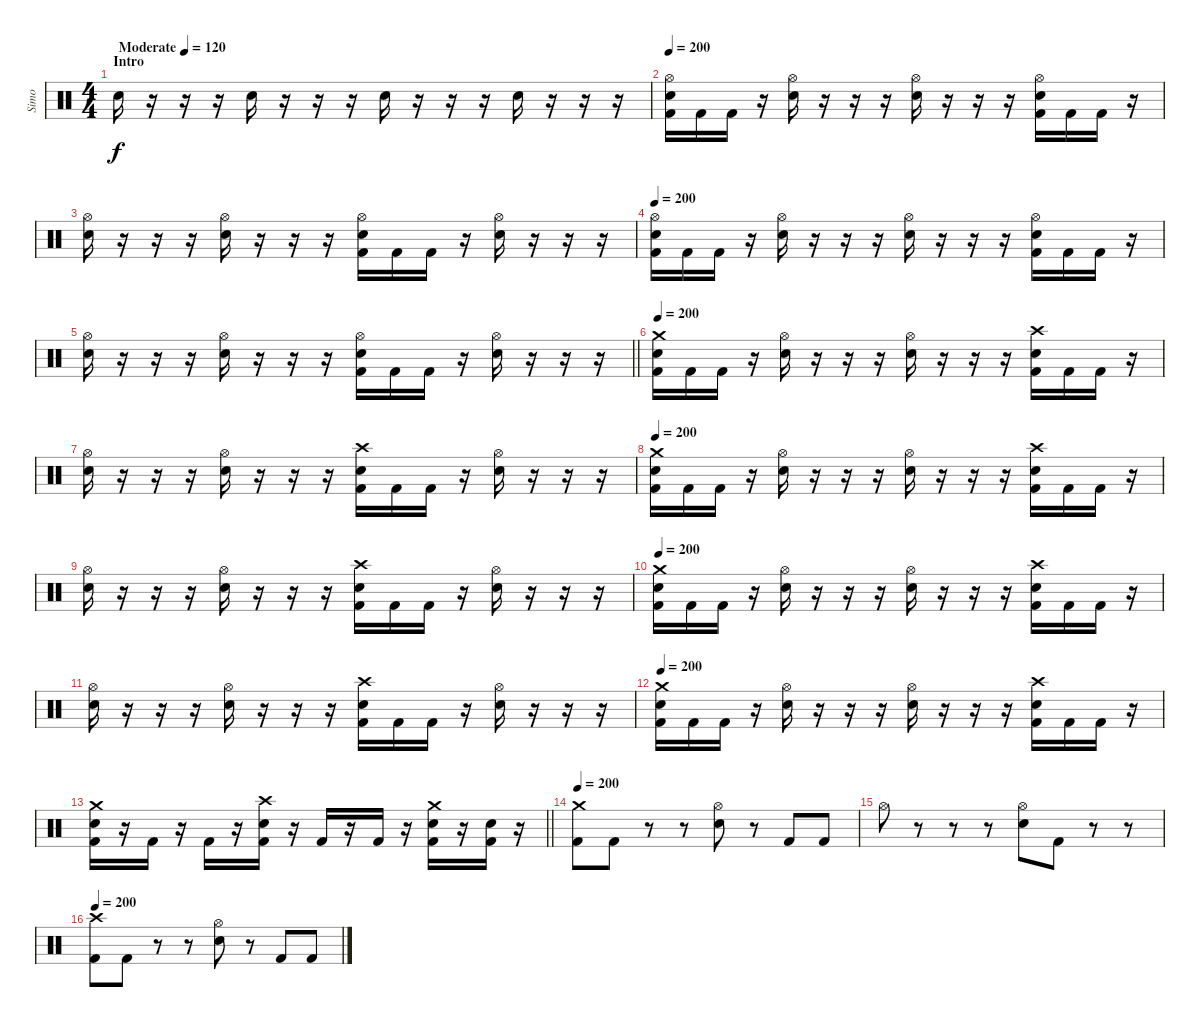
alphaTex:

\track ("Simo" "Simo") {instrument percussion bank 121}
\staff {score}
\articulation defaults
\ts (4 4)
\section ("" "Intro")
\tempo (120 "Moderate")
\tempo 200
\tempo (120 "Moderate")
\clef neutral
\ks c "Electric Snare (hit)".16{dy f}
r.16 r.16 r.16 "Electric Snare (hit)".16 r.16 r.16 r.16 "Electric Snare (hit)".16 r.16 r.16 r.16 "Electric Snare (hit)".16 r.16 r.16 r.16 |
\tempo 200
("Kick (hit) 2" "Electric Snare (hit)" "Hi-Hat (open)").16 "Kick (hit) 2".16 "Kick (hit) 2".16 r.16 ("Hi-Hat (open)" "Electric Snare (hit)").16 r.16 r.16 r.16 ("Hi-Hat (open)" "Electric Snare (hit)").16 r.16 r.16 r.16 ("Kick (hit) 2" "Electric Snare (hit)" "Hi-Hat (open)").16 "Kick (hit) 2".16 "Kick (hit) 2".16 r.16 |
("Hi-Hat (open)" "Electric Snare (hit)").16 r.16 r.16 r.16 ("Hi-Hat (open)" "Electric Snare (hit)").16 r.16 r.16 r.16 ("Kick (hit) 2" "Electric Snare (hit)" "Hi-Hat (open)").16 "Kick (hit) 2".16 "Kick (hit) 2".16 r.16 ("Hi-Hat (open)" "Electric Snare (hit)").16 r.16 r.16 r.16 |
\tempo 200
("Kick (hit) 2" "Electric Snare (hit)" "Hi-Hat (open)").16 "Kick (hit) 2".16 "Kick (hit) 2".16 r.16 ("Hi-Hat (open)" "Electric Snare (hit)").16 r.16 r.16 r.16 ("Hi-Hat (open)" "Electric Snare (hit)").16 r.16 r.16 r.16 ("Kick (hit) 2" "Electric Snare (hit)" "Hi-Hat (open)").16 "Kick (hit) 2".16 "Kick (hit) 2".16 r.16 |
\barLineRight lightlight
("Hi-Hat (open)" "Electric Snare (hit)").16 r.16 r.16 r.16 ("Hi-Hat (open)" "Electric Snare (hit)").16 r.16 r.16 r.16 ("Kick (hit) 2" "Electric Snare (hit)" "Hi-Hat (open)").16 "Kick (hit) 2".16 "Kick (hit) 2".16 r.16 ("Hi-Hat (open)" "Electric Snare (hit)").16 r.16 r.16 r.16 |
\section ("" "")
\tempo 200
("Kick (hit) 2" "Electric Snare (hit)" "Crash medium (hit)").16 "Kick (hit) 2".16 "Kick (hit) 2".16 r.16 ("Hi-Hat (open)" "Electric Snare (hit)").16 r.16 r.16 r.16 ("Hi-Hat (open)" "Electric Snare (hit)").16 r.16 r.16 r.16 ("Kick (hit) 2" "Electric Snare (hit)" "Crash high (hit)").16 "Kick (hit) 2".16 "Kick (hit) 2".16 r.16 |
("Hi-Hat (open)" "Electric Snare (hit)").16 r.16 r.16 r.16 ("Hi-Hat (open)" "Electric Snare (hit)").16 r.16 r.16 r.16 ("Kick (hit) 2" "Electric Snare (hit)" "Crash high (hit)").16 "Kick (hit) 2".16 "Kick (hit) 2".16 r.16 ("Hi-Hat (open)" "Electric Snare (hit)").16 r.16 r.16 r.16 |
\tempo 200
("Kick (hit) 2" "Electric Snare (hit)" "Crash medium (hit)").16 "Kick (hit) 2".16 "Kick (hit) 2".16 r.16 ("Hi-Hat (open)" "Electric Snare (hit)").16 r.16 r.16 r.16 ("Hi-Hat (open)" "Electric Snare (hit)").16 r.16 r.16 r.16 ("Kick (hit) 2" "Electric Snare (hit)" "Crash high (hit)").16 "Kick (hit) 2".16 "Kick (hit) 2".16 r.16 |
("Hi-Hat (open)" "Electric Snare (hit)").16 r.16 r.16 r.16 ("Hi-Hat (open)" "Electric Snare (hit)").16 r.16 r.16 r.16 ("Kick (hit) 2" "Electric Snare (hit)" "Crash high (hit)").16 "Kick (hit) 2".16 "Kick (hit) 2".16 r.16 ("Hi-Hat (open)" "Electric Snare (hit)").16 r.16 r.16 r.16 |
\tempo 200
("Kick (hit) 2" "Electric Snare (hit)" "Crash medium (hit)").16 "Kick (hit) 2".16 "Kick (hit) 2".16 r.16 ("Hi-Hat (open)" "Electric Snare (hit)").16 r.16 r.16 r.16 ("Hi-Hat (open)" "Electric Snare (hit)").16 r.16 r.16 r.16 ("Kick (hit) 2" "Electric Snare (hit)" "Crash high (hit)").16 "Kick (hit) 2".16 "Kick (hit) 2".16 r.16 |
("Hi-Hat (open)" "Electric Snare (hit)").16 r.16 r.16 r.16 ("Hi-Hat (open)" "Electric Snare (hit)").16 r.16 r.16 r.16 ("Kick (hit) 2" "Electric Snare (hit)" "Crash high (hit)").16 "Kick (hit) 2".16 "Kick (hit) 2".16 r.16 ("Hi-Hat (open)" "Electric Snare (hit)").16 r.16 r.16 r.16 |
\tempo 200
("Kick (hit) 2" "Electric Snare (hit)" "Crash medium (hit)").16 "Kick (hit) 2".16 "Kick (hit) 2".16 r.16 ("Hi-Hat (open)" "Electric Snare (hit)").16 r.16 r.16 r.16 ("Hi-Hat (open)" "Electric Snare (hit)").16 r.16 r.16 r.16 ("Kick (hit) 2" "Electric Snare (hit)" "Crash high (hit)").16 "Kick (hit) 2".16 "Kick (hit) 2".16 r.16 |
\barLineRight lightlight
("Kick (hit) 2" "Electric Snare (hit)" "Crash medium (hit)").16 r.16 "Kick (hit) 2".16 r.16 "Kick (hit) 2".16 r.16 ("Kick (hit) 2" "Electric Snare (hit)" "Crash high (hit)").16 r.16 "Kick (hit) 2".16 r.16 "Kick (hit) 2".16 r.16 ("Kick (hit) 2" "Electric Snare (hit)" "Crash medium (hit)").16 r.16 ("Kick (hit) 2" "Electric Snare (hit)").16 r.16 |
\section ("" "")
\tempo 200
("Kick (hit) 2" "Crash medium (hit)").8 "Kick (hit) 2".8 r.8 r.8 ("Hi-Hat (open)" "Electric Snare (hit)").8 r.8 "Kick (hit) 2".8 "Kick (hit) 2".8 |
"Hi-Hat (open)".8 r.8 r.8 r.8 ("Hi-Hat (open)" "Electric Snare (hit)").8 "Kick (hit) 2".8 r.8 r.8 |
\tempo 200
("Kick (hit) 2" "Crash high (hit)").8 "Kick (hit) 2".8 r.8 r.8 ("Hi-Hat (open)" "Electric Snare (hit)").8 r.8 "Kick (hit) 2".8 "Kick (hit) 2".8
